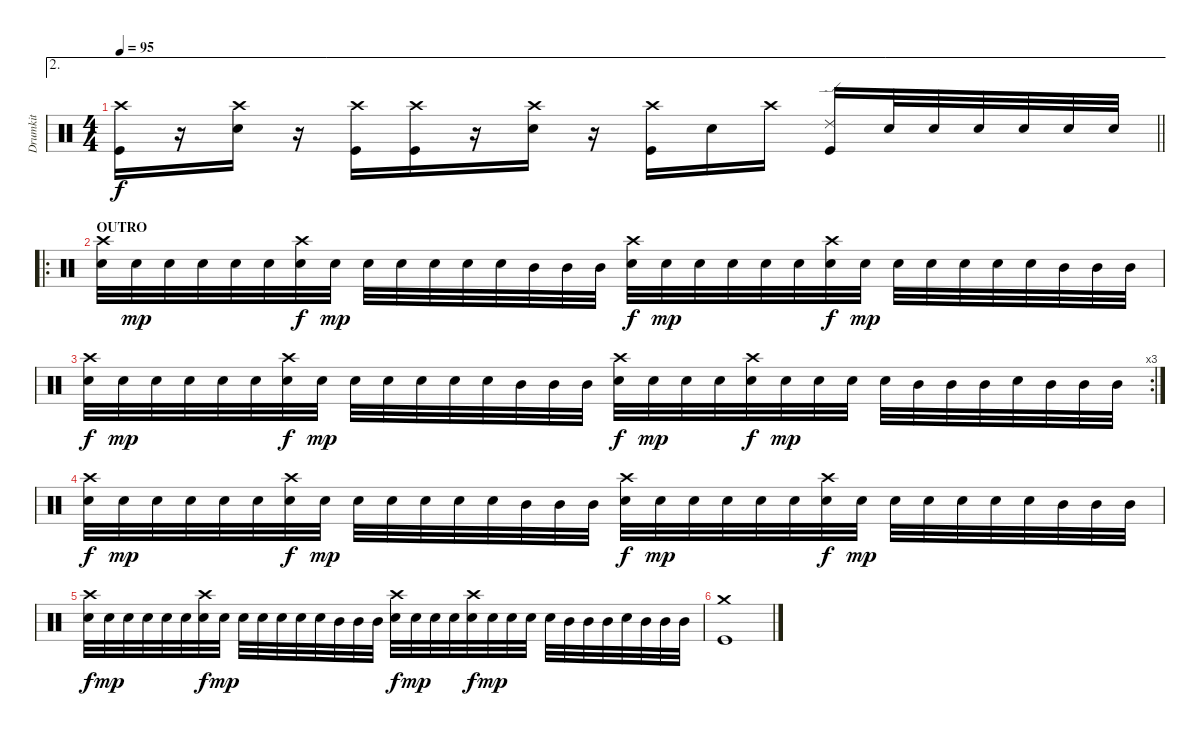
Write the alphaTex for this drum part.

\track ("Drumkit" "Drumkit") {instrument percussion}
\staff {score}
\articulation defaults
\ae 2
\ts (4 4)
\tempo 95
\clef neutral
\barLineRight lightlight
\ks c
("Kick (hit)" "Crash high (hit)").16{dy f} r.16 ("Snare (hit) 2" "Crash high (hit)").16 r.16 ("Kick (hit)" "Crash high (hit)").16 ("Kick (hit)" "Crash high (hit)").16 r.16 ("Snare (hit) 2" "Crash high (hit)").16 r.16 ("Kick (hit)" "Crash high (hit)").16 "Snare (hit) 2".16 "Crash high (hit)".16 ("Kick (hit)" "Ride (edge) 2").16 "Snare (hit) 2".32 "Snare (hit) 2".32 "Snare (hit) 2".32 "Snare (hit) 2".32 "Snare (hit) 2".32 "Snare (hit) 2".32 |
\ro
\section ("" "OUTRO")
("Snare (hit) 2" "Crash high (hit)").32 "Snare (hit) 2".32{dy mp} "Snare (hit) 2".32 "Snare (hit) 2".32 "Snare (hit) 2".32 "Snare (hit) 2".32 ("Snare (hit) 2" "Crash high (hit)").32{dy f} "Snare (hit) 2".32{dy mp} "Snare (hit) 2".32 "Snare (hit) 2".32 "Snare (hit) 2".32 "Snare (hit) 2".32 "Snare (hit) 2".32 "Mid Tom (hit)".32 "Mid Tom (hit)".32 "Mid Tom (hit)".32 ("Snare (hit) 2" "Crash high (hit)").32{dy f} "Snare (hit) 2".32{dy mp} "Snare (hit) 2".32 "Snare (hit) 2".32 "Snare (hit) 2".32 "Snare (hit) 2".32 ("Snare (hit) 2" "Crash high (hit)").32{dy f} "Snare (hit) 2".32{dy mp} "Snare (hit) 2".32 "Snare (hit) 2".32 "Snare (hit) 2".32 "Snare (hit) 2".32 "Snare (hit) 2".32 "Mid Tom (hit)".32 "Mid Tom (hit)".32 "Mid Tom (hit)".32 |
\rc 3
("Snare (hit) 2" "Crash high (hit)").32{dy f} "Snare (hit) 2".32{dy mp} "Snare (hit) 2".32 "Snare (hit) 2".32 "Snare (hit) 2".32 "Snare (hit) 2".32 ("Snare (hit) 2" "Crash high (hit)").32{dy f} "Snare (hit) 2".32{dy mp} "Snare (hit) 2".32 "Snare (hit) 2".32 "Snare (hit) 2".32 "Snare (hit) 2".32 "Snare (hit) 2".32 "Mid Tom (hit)".32 "Mid Tom (hit)".32 "Mid Tom (hit)".32 ("Snare (hit) 2" "Crash high (hit)").32{dy f} "Snare (hit) 2".32{dy mp} "Snare (hit) 2".32 "Snare (hit) 2".32 ("Snare (hit) 2" "Crash high (hit)").32{dy f} "Snare (hit) 2".32{dy mp} "Snare (hit) 2".32 "Snare (hit) 2".32 "Snare (hit) 2".32 "Mid Tom (hit)".32 "Mid Tom (hit)".32 "Mid Tom (hit)".32 "Snare (hit) 2".32 "Mid Tom (hit)".32 "Mid Tom (hit)".32 "Mid Tom (hit)".32 |
("Snare (hit) 2" "Crash high (hit)").32{dy f} "Snare (hit) 2".32{dy mp} "Snare (hit) 2".32 "Snare (hit) 2".32 "Snare (hit) 2".32 "Snare (hit) 2".32 ("Snare (hit) 2" "Crash high (hit)").32{dy f} "Snare (hit) 2".32{dy mp} "Snare (hit) 2".32 "Snare (hit) 2".32 "Snare (hit) 2".32 "Snare (hit) 2".32 "Snare (hit) 2".32 "Mid Tom (hit)".32 "Mid Tom (hit)".32 "Mid Tom (hit)".32 ("Snare (hit) 2" "Crash high (hit)").32{dy f} "Snare (hit) 2".32{dy mp} "Snare (hit) 2".32 "Snare (hit) 2".32 "Snare (hit) 2".32 "Snare (hit) 2".32 ("Snare (hit) 2" "Crash high (hit)").32{dy f} "Snare (hit) 2".32{dy mp} "Snare (hit) 2".32 "Snare (hit) 2".32 "Snare (hit) 2".32 "Snare (hit) 2".32 "Snare (hit) 2".32 "Mid Tom (hit)".32 "Mid Tom (hit)".32 "Mid Tom (hit)".32 |
("Snare (hit) 2" "Crash high (hit)").32{dy f} "Snare (hit) 2".32{dy mp} "Snare (hit) 2".32 "Snare (hit) 2".32 "Snare (hit) 2".32 "Snare (hit) 2".32 ("Snare (hit) 2" "Crash high (hit)").32{dy f} "Snare (hit) 2".32{dy mp} "Snare (hit) 2".32 "Snare (hit) 2".32 "Snare (hit) 2".32 "Snare (hit) 2".32 "Snare (hit) 2".32 "Mid Tom (hit)".32 "Mid Tom (hit)".32 "Mid Tom (hit)".32 ("Snare (hit) 2" "Crash high (hit)").32{dy f} "Snare (hit) 2".32{dy mp} "Snare (hit) 2".32 "Snare (hit) 2".32 ("Snare (hit) 2" "Crash high (hit)").32{dy f} "Snare (hit) 2".32{dy mp} "Snare (hit) 2".32 "Snare (hit) 2".32 "Snare (hit) 2".32 "Mid Tom (hit)".32 "Mid Tom (hit)".32 "Mid Tom (hit)".32 "Snare (hit) 2".32 "Mid Tom (hit)".32 "Mid Tom (hit)".32 "Mid Tom (hit)".32 |
("Crash medium (hit)" "Kick (hit)").1
